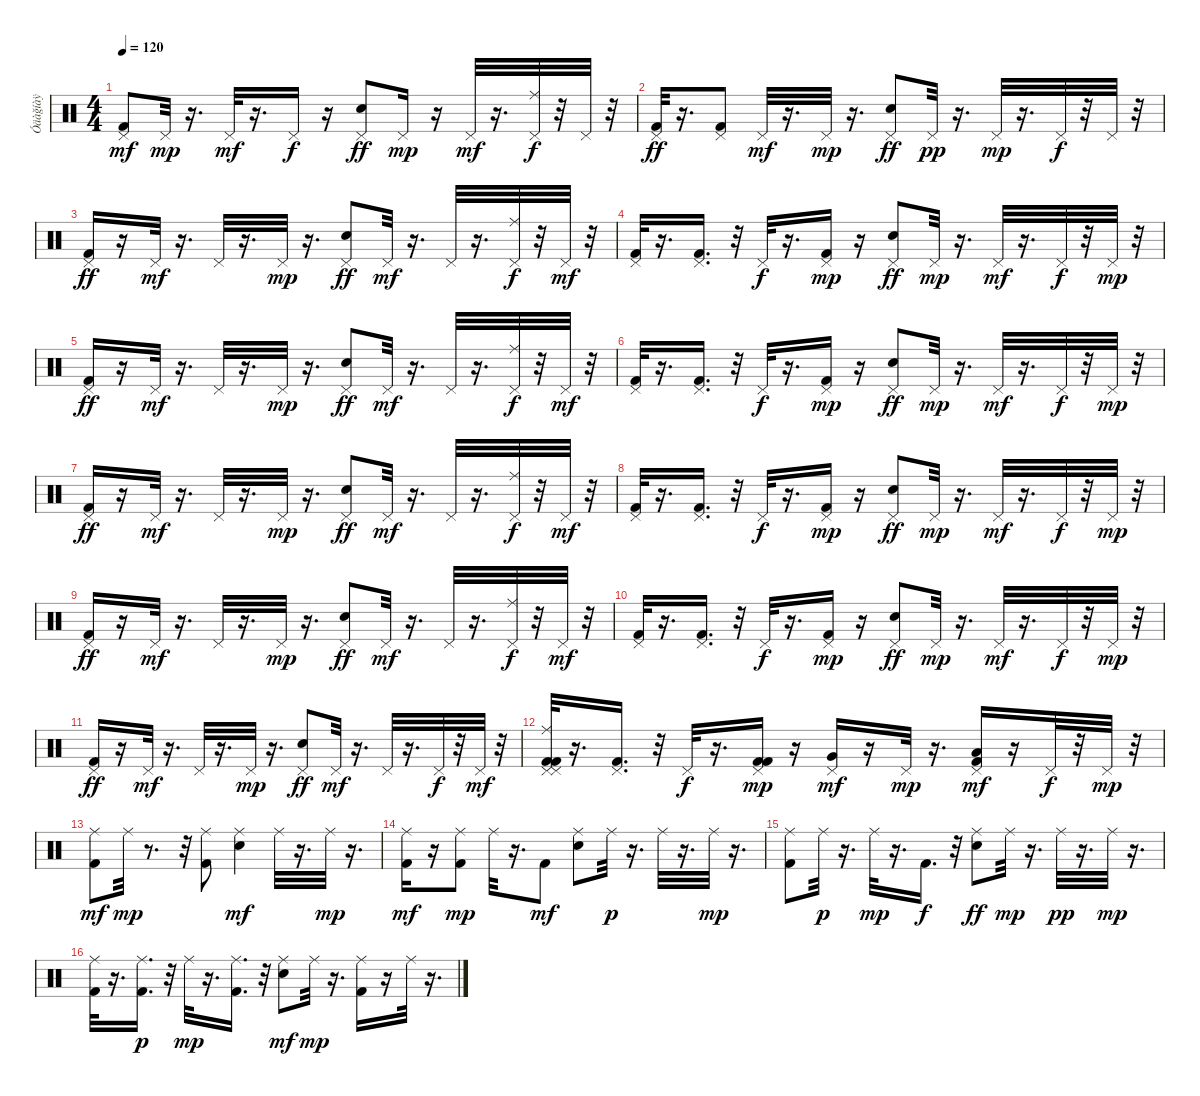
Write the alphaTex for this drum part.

\track ("Óäàğíàÿ" "Óäàğíàÿ") {instrument percussion}
\staff {score}
\articulation defaults
\ts (4 4)
\tempo 120
\clef neutral
\ks c
("Kick (hit) 2" "Pedal Hi-Hat (hit)").8{dy mf} "Pedal Hi-Hat (hit)".32{dy mp} r.16{d} "Pedal Hi-Hat (hit)".32{dy mf} r.16{d} "Pedal Hi-Hat (hit)".16{dy f} r.16 ("Pedal Hi-Hat (hit)" "Snare (hit) 2").8{dy ff} "Pedal Hi-Hat (hit)".16{dy mp} r.16 "Pedal Hi-Hat (hit)".32{dy mf} r.16{d} ("Ride (middle)" "Pedal Hi-Hat (hit)").32{dy f} r.32 "Pedal Hi-Hat (hit)".32 r.32 |
("Kick (hit) 2" "Pedal Hi-Hat (hit)").32{dy ff} r.16{d} ("Kick (hit) 2" "Pedal Hi-Hat (hit)").8 "Pedal Hi-Hat (hit)".32{dy mf} r.16{d} "Pedal Hi-Hat (hit)".32{dy mp} r.16{d} ("Pedal Hi-Hat (hit)" "Snare (hit) 2").8{dy ff} "Pedal Hi-Hat (hit)".32{dy pp} r.16{d} "Pedal Hi-Hat (hit)".32{dy mp} r.16{d} "Pedal Hi-Hat (hit)".32{dy f} r.32 "Pedal Hi-Hat (hit)".32 r.32 |
("Kick (hit) 2" "Pedal Hi-Hat (hit)").16{dy ff} r.16 "Pedal Hi-Hat (hit)".32{dy mf} r.16{d} "Pedal Hi-Hat (hit)".32 r.16{d} "Pedal Hi-Hat (hit)".32{dy mp} r.16{d} ("Pedal Hi-Hat (hit)" "Snare (hit) 2").8{dy ff} "Pedal Hi-Hat (hit)".32{dy mf} r.16{d} "Pedal Hi-Hat (hit)".32 r.16{d} ("Ride (middle)" "Pedal Hi-Hat (hit)").32{dy f} r.32 "Pedal Hi-Hat (hit)".32{dy mf} r.32 |
("Kick (hit) 2" "Pedal Hi-Hat (hit)").32 r.16{d} ("Kick (hit) 2" "Pedal Hi-Hat (hit)").16{d} r.32 "Pedal Hi-Hat (hit)".32{dy f} r.16{d} ("Kick (hit) 2" "Pedal Hi-Hat (hit)").16{dy mp} r.16 ("Pedal Hi-Hat (hit)" "Snare (hit) 2").8{dy ff} "Pedal Hi-Hat (hit)".32{dy mp} r.16{d} "Pedal Hi-Hat (hit)".32{dy mf} r.16{d} "Pedal Hi-Hat (hit)".32{dy f} r.32 "Pedal Hi-Hat (hit)".32{dy mp} r.32 |
("Kick (hit) 2" "Pedal Hi-Hat (hit)").16{dy ff} r.16 "Pedal Hi-Hat (hit)".32{dy mf} r.16{d} "Pedal Hi-Hat (hit)".32 r.16{d} "Pedal Hi-Hat (hit)".32{dy mp} r.16{d} ("Pedal Hi-Hat (hit)" "Snare (hit) 2").8{dy ff} "Pedal Hi-Hat (hit)".32{dy mf} r.16{d} "Pedal Hi-Hat (hit)".32 r.16{d} ("Ride (middle)" "Pedal Hi-Hat (hit)").32{dy f} r.32 "Pedal Hi-Hat (hit)".32{dy mf} r.32 |
("Kick (hit) 2" "Pedal Hi-Hat (hit)").32 r.16{d} ("Kick (hit) 2" "Pedal Hi-Hat (hit)").16{d} r.32 "Pedal Hi-Hat (hit)".32{dy f} r.16{d} ("Kick (hit) 2" "Pedal Hi-Hat (hit)").16{dy mp} r.16 ("Pedal Hi-Hat (hit)" "Snare (hit) 2").8{dy ff} "Pedal Hi-Hat (hit)".32{dy mp} r.16{d} "Pedal Hi-Hat (hit)".32{dy mf} r.16{d} "Pedal Hi-Hat (hit)".32{dy f} r.32 "Pedal Hi-Hat (hit)".32{dy mp} r.32 |
("Kick (hit) 2" "Pedal Hi-Hat (hit)").16{dy ff} r.16 "Pedal Hi-Hat (hit)".32{dy mf} r.16{d} "Pedal Hi-Hat (hit)".32 r.16{d} "Pedal Hi-Hat (hit)".32{dy mp} r.16{d} ("Pedal Hi-Hat (hit)" "Snare (hit) 2").8{dy ff} "Pedal Hi-Hat (hit)".32{dy mf} r.16{d} "Pedal Hi-Hat (hit)".32 r.16{d} ("Ride (middle)" "Pedal Hi-Hat (hit)").32{dy f} r.32 "Pedal Hi-Hat (hit)".32{dy mf} r.32 |
("Kick (hit) 2" "Pedal Hi-Hat (hit)").32 r.16{d} ("Kick (hit) 2" "Pedal Hi-Hat (hit)").16{d} r.32 "Pedal Hi-Hat (hit)".32{dy f} r.16{d} ("Kick (hit) 2" "Pedal Hi-Hat (hit)").16{dy mp} r.16 ("Pedal Hi-Hat (hit)" "Snare (hit) 2").8{dy ff} "Pedal Hi-Hat (hit)".32{dy mp} r.16{d} "Pedal Hi-Hat (hit)".32{dy mf} r.16{d} "Pedal Hi-Hat (hit)".32{dy f} r.32 "Pedal Hi-Hat (hit)".32{dy mp} r.32 |
("Kick (hit) 2" "Pedal Hi-Hat (hit)").16{dy ff} r.16 "Pedal Hi-Hat (hit)".32{dy mf} r.16{d} "Pedal Hi-Hat (hit)".32 r.16{d} "Pedal Hi-Hat (hit)".32{dy mp} r.16{d} ("Pedal Hi-Hat (hit)" "Snare (hit) 2").8{dy ff} "Pedal Hi-Hat (hit)".32{dy mf} r.16{d} "Pedal Hi-Hat (hit)".32 r.16{d} ("Ride (middle)" "Pedal Hi-Hat (hit)").32{dy f} r.32 "Pedal Hi-Hat (hit)".32{dy mf} r.32 |
("Kick (hit) 2" "Pedal Hi-Hat (hit)").32 r.16{d} ("Kick (hit) 2" "Pedal Hi-Hat (hit)").16{d} r.32 "Pedal Hi-Hat (hit)".32{dy f} r.16{d} ("Kick (hit) 2" "Pedal Hi-Hat (hit)").16{dy mp} r.16 ("Pedal Hi-Hat (hit)" "Snare (hit) 2").8{dy ff} "Pedal Hi-Hat (hit)".32{dy mp} r.16{d} "Pedal Hi-Hat (hit)".32{dy mf} r.16{d} "Pedal Hi-Hat (hit)".32{dy f} r.32 "Pedal Hi-Hat (hit)".32{dy mp} r.32 |
("Kick (hit) 2" "Pedal Hi-Hat (hit)").16{dy ff} r.16 "Pedal Hi-Hat (hit)".32{dy mf} r.16{d} "Pedal Hi-Hat (hit)".32 r.16{d} "Pedal Hi-Hat (hit)".32{dy mp} r.16{d} ("Pedal Hi-Hat (hit)" "Snare (hit) 2").8{dy ff} "Pedal Hi-Hat (hit)".32{dy mf} r.16{d} "Pedal Hi-Hat (hit)".32 r.16{d} "Pedal Hi-Hat (hit)".32{dy f} r.32 "Pedal Hi-Hat (hit)".32{dy mf} r.32 |
("Ride (middle)" "Pedal Hi-Hat (hit)" "Kick (hit) 2" "Kick (hit) 2" "Pedal Hi-Hat (hit)").32 r.16{d} ("Kick (hit) 2" "Pedal Hi-Hat (hit)").16{d} r.32 "Pedal Hi-Hat (hit)".32{dy f} r.16{d} ("Kick (hit) 2" "Kick (hit) 2" "Pedal Hi-Hat (hit)").16{dy mp} r.16 ("Very Low Tom (hit)" "Pedal Hi-Hat (hit)").16{dy mf} r.16 "Pedal Hi-Hat (hit)".32{dy mp} r.16{d} ("Low Floor Tom (hit)" "Kick (hit) 2" "Pedal Hi-Hat (hit)").16{dy mf} r.16 "Pedal Hi-Hat (hit)".32{dy f} r.32 "Pedal Hi-Hat (hit)".32{dy mp} r.32 |
("Ride (middle)" "Kick (hit) 2").8{dy mf} "Ride (middle)".32{dy mp} r.8{d} r.32 ("Kick (hit) 2" "Ride (middle)").8 ("Snare (hit) 2" "Ride (middle)").4{dy mf} "Ride (middle)".32 r.16{d} "Ride (middle)".32{dy mp} r.16{d} |
("Ride (middle)" "Kick (hit) 2").16{dy mf} r.16 ("Kick (hit) 2" "Ride (middle)").8{dy mp} "Ride (middle)".32 r.16{d} "Kick (hit) 2".8{dy mf} ("Ride (middle)" "Snare (hit) 2").8 "Ride (middle)".32{dy p} r.16{d} "Ride (middle)".32 r.16{d} "Ride (middle)".32{dy mp} r.16{d} |
("Kick (hit) 2" "Ride (middle)").8 "Ride (middle)".32{dy p} r.16{d} "Ride (middle)".32{dy mp} r.16{d} "Kick (hit) 2".16{d dy f} r.32 ("Ride (middle)" "Snare (hit) 2").8{dy ff} "Ride (middle)".32{dy mp} r.16{d} "Ride (middle)".32{dy pp} r.16{d} "Ride (middle)".32{dy mp} r.16{d} |
("Kick (hit) 2" "Ride (middle)").32 r.16{d} ("Kick (hit) 2" "Ride (middle)").16{d dy p} r.32 "Ride (middle)".32{dy mp} r.16{d} ("Kick (hit) 2" "Ride (middle)").16{d} r.32 ("Snare (hit) 2" "Ride (middle)").8{dy mf} "Ride (middle)".32{dy mp} r.16{d} ("Kick (hit) 2" "Ride (middle)").16 r.16 "Ride (middle)".32 r.16{d}
